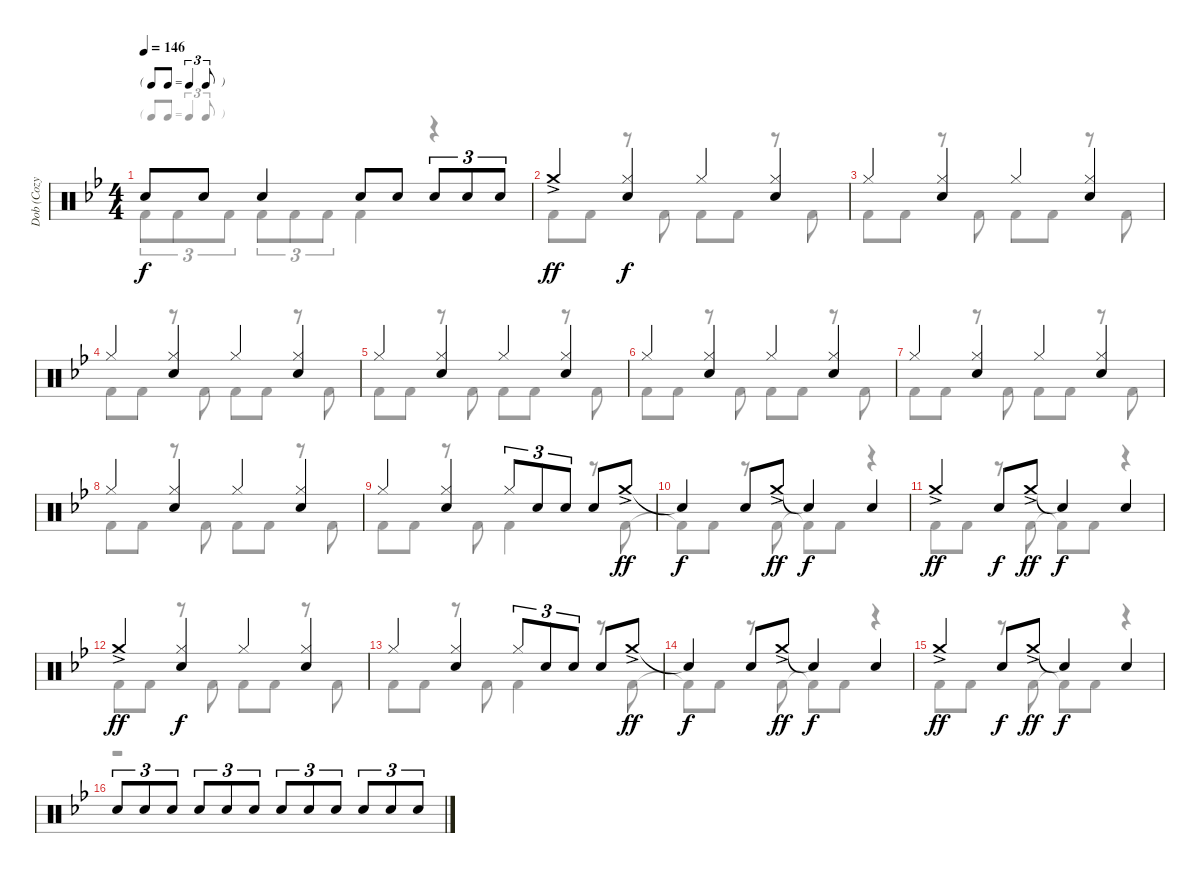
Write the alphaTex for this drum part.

\track ("Dob (Cozy Powell)" "Dob (Cozy ") {instrument percussion}
\staff {score}
\articulation defaults
\voice
\ts (4 4)
\tf triplet8th
\tempo 146
\clef neutral
\ks bb "Electric Snare (hit)".8{dy f} "Electric Snare (hit)".8 "Electric Snare (hit)".4 "Electric Snare (hit)".8 "Electric Snare (hit)".8 "Electric Snare (hit)".8{tu (3 2)} "Electric Snare (hit)".8{tu (3 2)} "Electric Snare (hit)".8{tu (3 2)}
|
"Crash medium (hit)"{ac}.4{dy ff} ("Hi-Hat (closed)" "Electric Snare (hit)").4{dy f} "Hi-Hat (closed)".4 ("Hi-Hat (closed)" "Electric Snare (hit)").4 |
"Hi-Hat (closed)".4 ("Hi-Hat (closed)" "Electric Snare (hit)").4 "Hi-Hat (closed)".4 ("Hi-Hat (closed)" "Electric Snare (hit)").4 |
"Hi-Hat (closed)".4 ("Hi-Hat (closed)" "Electric Snare (hit)").4 "Hi-Hat (closed)".4 ("Hi-Hat (closed)" "Electric Snare (hit)").4 |
"Hi-Hat (closed)".4 ("Hi-Hat (closed)" "Electric Snare (hit)").4 "Hi-Hat (closed)".4 ("Hi-Hat (closed)" "Electric Snare (hit)").4 |
"Hi-Hat (closed)".4 ("Hi-Hat (closed)" "Electric Snare (hit)").4 "Hi-Hat (closed)".4 ("Hi-Hat (closed)" "Electric Snare (hit)").4 |
"Hi-Hat (closed)".4 ("Hi-Hat (closed)" "Electric Snare (hit)").4 "Hi-Hat (closed)".4 ("Hi-Hat (closed)" "Electric Snare (hit)").4 |
"Hi-Hat (closed)".4 ("Hi-Hat (closed)" "Electric Snare (hit)").4 "Hi-Hat (closed)".4 ("Hi-Hat (closed)" "Electric Snare (hit)").4 |
"Hi-Hat (closed)".4 ("Hi-Hat (closed)" "Electric Snare (hit)").4 "Hi-Hat (closed)".8{tu (3 2)} "Electric Snare (hit)".8{tu (3 2)} "Electric Snare (hit)".8{tu (3 2)} "Electric Snare (hit)".8 "Crash medium (hit)"{ac}.8{dy ff} |
"Snare (hit)"{t}.4{dy f} "Electric Snare (hit)".8 "Crash medium (hit)"{ac}.8{dy ff} "Snare (hit)"{t}.4{dy f} "Electric Snare (hit)".4 |
"Crash medium (hit)"{ac}.4{dy ff} "Electric Snare (hit)".8{dy f} "Crash medium (hit)"{ac}.8{dy ff} "Snare (hit)"{t}.4{dy f} "Electric Snare (hit)".4 |
"Crash medium (hit)"{ac}.4{dy ff} ("Hi-Hat (closed)" "Electric Snare (hit)").4{dy f} "Hi-Hat (closed)".4 ("Hi-Hat (closed)" "Electric Snare (hit)").4 |
"Hi-Hat (closed)".4 ("Hi-Hat (closed)" "Electric Snare (hit)").4 "Hi-Hat (closed)".8{tu (3 2)} "Electric Snare (hit)".8{tu (3 2)} "Electric Snare (hit)".8{tu (3 2)} "Electric Snare (hit)".8 "Crash medium (hit)"{ac}.8{dy ff} |
"Snare (hit)"{t}.4{dy f} "Electric Snare (hit)".8 "Crash medium (hit)"{ac}.8{dy ff} "Snare (hit)"{t}.4{dy f} "Electric Snare (hit)".4 |
"Crash medium (hit)"{ac}.4{dy ff} "Electric Snare (hit)".8{dy f} "Crash medium (hit)"{ac}.8{dy ff} "Snare (hit)"{t}.4{dy f} "Electric Snare (hit)".4 |
"Electric Snare (hit)".8{tu (3 2)} "Electric Snare (hit)".8{tu (3 2)} "Electric Snare (hit)".8{tu (3 2)} "Electric Snare (hit)".8{tu (3 2)} "Electric Snare (hit)".8{tu (3 2)} "Electric Snare (hit)".8{tu (3 2)} "Electric Snare (hit)".8{tu (3 2)} "Electric Snare (hit)".8{tu (3 2)} "Electric Snare (hit)".8{tu (3 2)} "Electric Snare (hit)".8{tu (3 2)} "Electric Snare (hit)".8{tu (3 2)} "Electric Snare (hit)".8{tu (3 2)}
\voice
\clef neutral
\ottava regular
\simile none
\ks bb "Kick (hit) 2".8{tu (3 2) dy f} "Kick (hit) 2".8{tu (3 2)} "Kick (hit) 2".8{tu (3 2)} "Kick (hit) 2".8{tu (3 2)} "Kick (hit) 2".8{tu (3 2)} "Kick (hit) 2".8{tu (3 2)} "Kick (hit) 2".4
r.4 |
"Kick (hit) 2".8 "Kick (hit) 2".8 r.8 "Kick (hit) 2".8 "Kick (hit) 2".8 "Kick (hit) 2".8 r.8 "Kick (hit) 2".8 |
"Kick (hit) 2".8 "Kick (hit) 2".8 r.8 "Kick (hit) 2".8 "Kick (hit) 2".8 "Kick (hit) 2".8 r.8 "Kick (hit) 2".8 |
"Kick (hit) 2".8 "Kick (hit) 2".8 r.8 "Kick (hit) 2".8 "Kick (hit) 2".8 "Kick (hit) 2".8 r.8 "Kick (hit) 2".8 |
"Kick (hit) 2".8 "Kick (hit) 2".8 r.8 "Kick (hit) 2".8 "Kick (hit) 2".8 "Kick (hit) 2".8 r.8 "Kick (hit) 2".8 |
"Kick (hit) 2".8 "Kick (hit) 2".8 r.8 "Kick (hit) 2".8 "Kick (hit) 2".8 "Kick (hit) 2".8 r.8 "Kick (hit) 2".8 |
"Kick (hit) 2".8 "Kick (hit) 2".8 r.8 "Kick (hit) 2".8 "Kick (hit) 2".8 "Kick (hit) 2".8 r.8 "Kick (hit) 2".8 |
"Kick (hit) 2".8 "Kick (hit) 2".8 r.8 "Kick (hit) 2".8 "Kick (hit) 2".8 "Kick (hit) 2".8 r.8 "Kick (hit) 2".8 |
"Kick (hit) 2".8 "Kick (hit) 2".8 r.8 "Kick (hit) 2".8 "Kick (hit) 2".4 r.8 "Kick (hit) 2".8 |
"Kick (hit) 2"{t}.8 "Kick (hit) 2".8 r.8 "Kick (hit) 2".8 "Kick (hit) 2"{t}.8 "Kick (hit) 2".8 r.4 |
"Kick (hit) 2".8 "Kick (hit) 2".8 r.8 "Kick (hit) 2".8 "Kick (hit) 2"{t}.8 "Kick (hit) 2".8 r.4 |
"Kick (hit) 2".8 "Kick (hit) 2".8 r.8 "Kick (hit) 2".8 "Kick (hit) 2".8 "Kick (hit) 2".8 r.8 "Kick (hit) 2".8 |
"Kick (hit) 2".8 "Kick (hit) 2".8 r.8 "Kick (hit) 2".8 "Kick (hit) 2".4 r.8 "Kick (hit) 2".8 |
"Kick (hit) 2"{t}.8 "Kick (hit) 2".8 r.8 "Kick (hit) 2".8 "Kick (hit) 2"{t}.8 "Kick (hit) 2".8 r.4 |
"Kick (hit) 2".8 "Kick (hit) 2".8 r.8 "Kick (hit) 2".8 "Kick (hit) 2"{t}.8 "Kick (hit) 2".8 r.4 |
r.1
